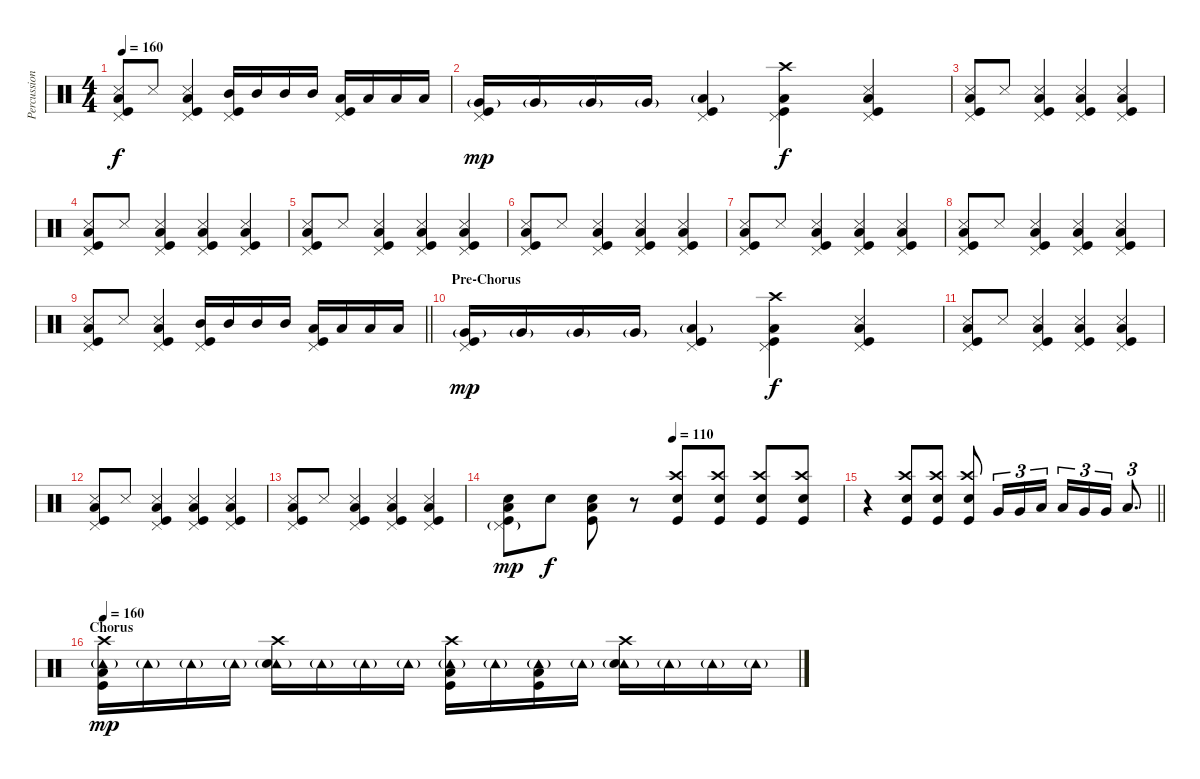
\track ("Percussion" "Percussion") {instrument percussion}
\staff {score}
\articulation defaults
\ts (4 4)
\tempo 160
\clef neutral
\ks c
("Snare (side stick) 3" "Low Floor Tom (hit)" "Kick (hit)" "Pedal Hi-Hat (hit)").8{dy f} "Snare (side stick) 3".8 ("Snare (side stick) 3" "Low Floor Tom (hit)" "Kick (hit)" "Pedal Hi-Hat (hit)").4 ("Mid Tom (hit)" "Kick (hit)" "Pedal Hi-Hat (hit)").16 "Mid Tom (hit)".16 "Mid Tom (hit)".16 "Mid Tom (hit)".16 ("Low Tom (hit)" "Kick (hit)" "Pedal Hi-Hat (hit)").16 "Low Tom (hit)".16 "Low Tom (hit)".16 "Low Tom (hit)".16 |
("Very Low Tom (hit)"{g} "Kick (hit)" "Pedal Hi-Hat (hit)").16{dy mp} "Very Low Tom (hit)"{g}.16 "Very Low Tom (hit)"{g}.16 "Very Low Tom (hit)"{g}.16 ("Low Floor Tom (hit)"{g} "Kick (hit)" "Pedal Hi-Hat (hit)").4 ("Crash high (hit)" "Low Floor Tom (hit)" "Kick (hit)" "Pedal Hi-Hat (hit)").4{dy f} ("Snare (side stick) 3" "Low Floor Tom (hit)" "Kick (hit)" "Pedal Hi-Hat (hit)").4 |
("Snare (side stick) 3" "Low Floor Tom (hit)" "Kick (hit)" "Pedal Hi-Hat (hit)").8 "Snare (side stick) 3".8 ("Snare (side stick) 3" "Low Floor Tom (hit)" "Kick (hit)" "Pedal Hi-Hat (hit)").4 ("Snare (side stick) 3" "Low Floor Tom (hit)" "Kick (hit)" "Pedal Hi-Hat (hit)").4 ("Snare (side stick) 3" "Low Floor Tom (hit)" "Kick (hit)" "Pedal Hi-Hat (hit)").4 |
("Snare (side stick) 3" "Low Floor Tom (hit)" "Kick (hit)" "Pedal Hi-Hat (hit)").8 "Snare (side stick) 3".8 ("Snare (side stick) 3" "Low Floor Tom (hit)" "Kick (hit)" "Pedal Hi-Hat (hit)").4 ("Snare (side stick) 3" "Low Floor Tom (hit)" "Kick (hit)" "Pedal Hi-Hat (hit)").4 ("Snare (side stick) 3" "Low Floor Tom (hit)" "Kick (hit)" "Pedal Hi-Hat (hit)").4 |
("Snare (side stick) 3" "Low Floor Tom (hit)" "Kick (hit)" "Pedal Hi-Hat (hit)").8 "Snare (side stick) 3".8 ("Snare (side stick) 3" "Low Floor Tom (hit)" "Kick (hit)" "Pedal Hi-Hat (hit)").4 ("Snare (side stick) 3" "Low Floor Tom (hit)" "Kick (hit)" "Pedal Hi-Hat (hit)").4 ("Snare (side stick) 3" "Low Floor Tom (hit)" "Kick (hit)" "Pedal Hi-Hat (hit)").4 |
("Snare (side stick) 3" "Low Floor Tom (hit)" "Kick (hit)" "Pedal Hi-Hat (hit)").8 "Snare (side stick) 3".8 ("Snare (side stick) 3" "Low Floor Tom (hit)" "Kick (hit)" "Pedal Hi-Hat (hit)").4 ("Snare (side stick) 3" "Low Floor Tom (hit)" "Kick (hit)" "Pedal Hi-Hat (hit)").4 ("Snare (side stick) 3" "Low Floor Tom (hit)" "Kick (hit)" "Pedal Hi-Hat (hit)").4 |
("Snare (side stick) 3" "Low Floor Tom (hit)" "Kick (hit)" "Pedal Hi-Hat (hit)").8 "Snare (side stick) 3".8 ("Snare (side stick) 3" "Low Floor Tom (hit)" "Kick (hit)" "Pedal Hi-Hat (hit)").4 ("Snare (side stick) 3" "Low Floor Tom (hit)" "Kick (hit)" "Pedal Hi-Hat (hit)").4 ("Snare (side stick) 3" "Low Floor Tom (hit)" "Kick (hit)" "Pedal Hi-Hat (hit)").4 |
("Snare (side stick) 3" "Low Floor Tom (hit)" "Kick (hit)" "Pedal Hi-Hat (hit)").8 "Snare (side stick) 3".8 ("Snare (side stick) 3" "Low Floor Tom (hit)" "Kick (hit)" "Pedal Hi-Hat (hit)").4 ("Snare (side stick) 3" "Low Floor Tom (hit)" "Kick (hit)" "Pedal Hi-Hat (hit)").4 ("Snare (side stick) 3" "Low Floor Tom (hit)" "Kick (hit)" "Pedal Hi-Hat (hit)").4 |
\barLineRight lightlight
("Snare (side stick) 3" "Low Floor Tom (hit)" "Kick (hit)" "Pedal Hi-Hat (hit)").8 "Snare (side stick) 3".8 ("Snare (side stick) 3" "Low Floor Tom (hit)" "Kick (hit)" "Pedal Hi-Hat (hit)").4 ("Mid Tom (hit)" "Kick (hit)" "Pedal Hi-Hat (hit)").16 "Mid Tom (hit)".16 "Mid Tom (hit)".16 "Mid Tom (hit)".16 ("Low Tom (hit)" "Kick (hit)" "Pedal Hi-Hat (hit)").16 "Low Tom (hit)".16 "Low Tom (hit)".16 "Low Tom (hit)".16 |
\section ("" "Pre-Chorus")
("Very Low Tom (hit)"{g} "Kick (hit)" "Pedal Hi-Hat (hit)").16{dy mp} "Very Low Tom (hit)"{g}.16 "Very Low Tom (hit)"{g}.16 "Very Low Tom (hit)"{g}.16 ("Low Floor Tom (hit)"{g} "Kick (hit)" "Pedal Hi-Hat (hit)").4 ("Crash high (hit)" "Low Floor Tom (hit)" "Kick (hit)" "Pedal Hi-Hat (hit)").4{dy f} ("Snare (side stick) 3" "Low Floor Tom (hit)" "Kick (hit)" "Pedal Hi-Hat (hit)").4 |
("Snare (side stick) 3" "Low Floor Tom (hit)" "Kick (hit)" "Pedal Hi-Hat (hit)").8 "Snare (side stick) 3".8 ("Snare (side stick) 3" "Low Floor Tom (hit)" "Kick (hit)" "Pedal Hi-Hat (hit)").4 ("Snare (side stick) 3" "Low Floor Tom (hit)" "Kick (hit)" "Pedal Hi-Hat (hit)").4 ("Snare (side stick) 3" "Low Floor Tom (hit)" "Kick (hit)" "Pedal Hi-Hat (hit)").4 |
("Snare (side stick) 3" "Low Floor Tom (hit)" "Kick (hit)" "Pedal Hi-Hat (hit)").8 "Snare (side stick) 3".8 ("Snare (side stick) 3" "Low Floor Tom (hit)" "Kick (hit)" "Pedal Hi-Hat (hit)").4 ("Snare (side stick) 3" "Low Floor Tom (hit)" "Kick (hit)" "Pedal Hi-Hat (hit)").4 ("Snare (side stick) 3" "Low Floor Tom (hit)" "Kick (hit)" "Pedal Hi-Hat (hit)").4 |
("Snare (side stick) 3" "Low Floor Tom (hit)" "Kick (hit)" "Pedal Hi-Hat (hit)").8 "Snare (side stick) 3".8 ("Snare (side stick) 3" "Low Floor Tom (hit)" "Kick (hit)" "Pedal Hi-Hat (hit)").4 ("Snare (side stick) 3" "Low Floor Tom (hit)" "Kick (hit)" "Pedal Hi-Hat (hit)").4 ("Snare (side stick) 3" "Low Floor Tom (hit)" "Kick (hit)" "Pedal Hi-Hat (hit)").4 |
\tempo (110 0.5)
("Hand Clap (hit)" "Low Floor Tom (hit)" "Kick (hit)" "Pedal Hi-Hat (hit)"{g}).8{dy mp} "Hand Clap (hit)".8{dy f} ("Hand Clap (hit)" "Low Floor Tom (hit)" "Kick (hit)").8 r.8 ("Crash high (hit)" "Snare (hit) 2" "Kick (hit)").8 ("Crash high (hit)" "Snare (hit) 2" "Kick (hit)").8 ("Crash high (hit)" "Snare (hit) 2" "Kick (hit)").8 ("Crash high (hit)" "Snare (hit) 2" "Kick (hit)").8 |
\barLineRight lightlight
r.4 ("Crash high (hit)" "Snare (hit) 2" "Kick (hit)").8 ("Crash high (hit)" "Snare (hit) 2" "Kick (hit)").8 ("Crash high (hit)" "Snare (hit) 2" "Kick (hit)").8 "Very Low Tom (hit)".16{tu (3 2)} "Very Low Tom (hit)".16{tu (3 2)} "Low Floor Tom (hit)".16{tu (3 2)} "Low Floor Tom (hit)".16{tu (3 2)} "Very Low Tom (hit)".16{tu (3 2)} "Very Low Tom (hit)".16{tu (3 2)} "Low Tom (hit)".8{d tu (3 2)} |
\section ("" "Chorus")
\tempo 160
("Tambourine (hit)"{g} "Crash high (hit)" "Low Floor Tom (hit)" "Kick (hit)").16{dy mp} "Tambourine (hit)"{g}.16 "Tambourine (hit)"{g}.16 "Tambourine (hit)"{g}.16 ("Tambourine (hit)"{g} "Crash high (hit)" "Snare (hit) 2").16 "Tambourine (hit)"{g}.16 "Tambourine (hit)"{g}.16 "Tambourine (hit)"{g}.16 ("Tambourine (hit)"{g} "Crash high (hit)" "Low Floor Tom (hit)" "Kick (hit)").16 "Tambourine (hit)"{g}.16 ("Tambourine (hit)"{g} "Low Floor Tom (hit)" "Kick (hit)").16 "Tambourine (hit)"{g}.16 ("Tambourine (hit)"{g} "Crash high (hit)" "Snare (hit) 2").16 "Tambourine (hit)"{g}.16 "Tambourine (hit)"{g}.16 "Tambourine (hit)"{g}.16
